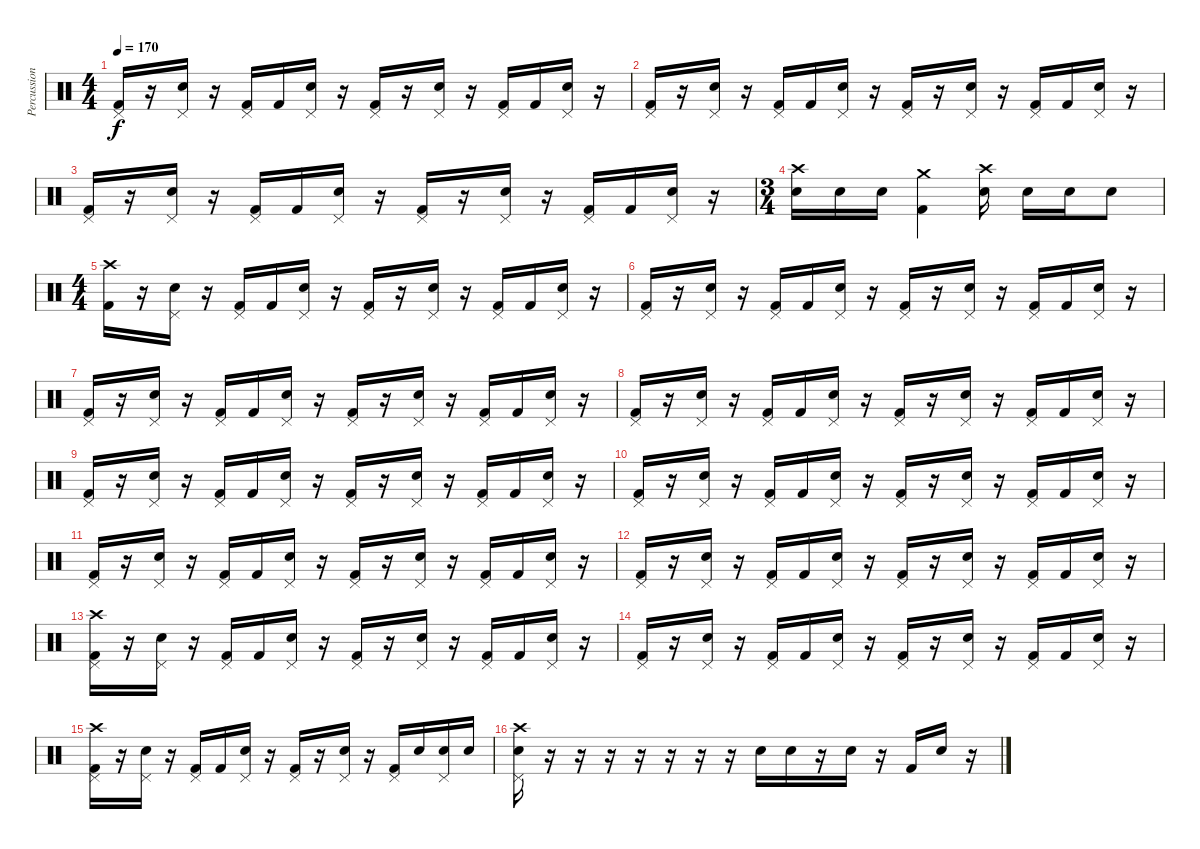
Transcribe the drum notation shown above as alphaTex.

\track ("Percussion" "Percussion") {instrument percussion}
\staff {score}
\articulation defaults
\ts (4 4)
\tempo 170
\clef neutral
\ks c
("Kick (hit) 2" "Pedal Hi-Hat (hit)").16{dy f} r.16 ("Electric Snare (hit)" "Pedal Hi-Hat (hit)").16 r.16 ("Kick (hit) 2" "Pedal Hi-Hat (hit)").16 "Kick (hit) 2".16 ("Electric Snare (hit)" "Pedal Hi-Hat (hit)").16 r.16 ("Kick (hit) 2" "Pedal Hi-Hat (hit)").16 r.16 ("Electric Snare (hit)" "Pedal Hi-Hat (hit)").16 r.16 ("Kick (hit) 2" "Pedal Hi-Hat (hit)").16 "Kick (hit) 2".16 ("Electric Snare (hit)" "Pedal Hi-Hat (hit)").16 r.16 |
("Kick (hit) 2" "Pedal Hi-Hat (hit)").16 r.16 ("Electric Snare (hit)" "Pedal Hi-Hat (hit)").16 r.16 ("Kick (hit) 2" "Pedal Hi-Hat (hit)").16 "Kick (hit) 2".16 ("Electric Snare (hit)" "Pedal Hi-Hat (hit)").16 r.16 ("Kick (hit) 2" "Pedal Hi-Hat (hit)").16 r.16 ("Electric Snare (hit)" "Pedal Hi-Hat (hit)").16 r.16 ("Kick (hit) 2" "Pedal Hi-Hat (hit)").16 "Kick (hit) 2".16 ("Electric Snare (hit)" "Pedal Hi-Hat (hit)").16 r.16 |
("Kick (hit) 2" "Pedal Hi-Hat (hit)").16 r.16 ("Electric Snare (hit)" "Pedal Hi-Hat (hit)").16 r.16 ("Kick (hit) 2" "Pedal Hi-Hat (hit)").16 "Kick (hit) 2".16 ("Electric Snare (hit)" "Pedal Hi-Hat (hit)").16 r.16 ("Kick (hit) 2" "Pedal Hi-Hat (hit)").16 r.16 ("Electric Snare (hit)" "Pedal Hi-Hat (hit)").16 r.16 ("Kick (hit) 2" "Pedal Hi-Hat (hit)").16 "Kick (hit) 2".16 ("Electric Snare (hit)" "Pedal Hi-Hat (hit)").16 r.16 |
\ts (3 4)
("Electric Snare (hit)" "Crash high (hit)").16 "Electric Snare (hit)".16 "Electric Snare (hit)".16 ("Kick (hit) 2" "Crash medium (hit)").4 ("Electric Snare (hit)" "Crash high (hit)").16 "Electric Snare (hit)".16 "Electric Snare (hit)".16 "Electric Snare (hit)".8 |
\ts (4 4)
("Kick (hit) 2" "Crash high (hit)").16 r.16 ("Electric Snare (hit)" "Pedal Hi-Hat (hit)").16 r.16 ("Kick (hit) 2" "Pedal Hi-Hat (hit)").16 "Kick (hit) 2".16 ("Electric Snare (hit)" "Pedal Hi-Hat (hit)").16 r.16 ("Kick (hit) 2" "Pedal Hi-Hat (hit)").16 r.16 ("Electric Snare (hit)" "Pedal Hi-Hat (hit)").16 r.16 ("Kick (hit) 2" "Pedal Hi-Hat (hit)").16 "Kick (hit) 2".16 ("Electric Snare (hit)" "Pedal Hi-Hat (hit)").16 r.16 |
("Kick (hit) 2" "Pedal Hi-Hat (hit)").16 r.16 ("Electric Snare (hit)" "Pedal Hi-Hat (hit)").16 r.16 ("Kick (hit) 2" "Pedal Hi-Hat (hit)").16 "Kick (hit) 2".16 ("Electric Snare (hit)" "Pedal Hi-Hat (hit)").16 r.16 ("Kick (hit) 2" "Pedal Hi-Hat (hit)").16 r.16 ("Electric Snare (hit)" "Pedal Hi-Hat (hit)").16 r.16 ("Kick (hit) 2" "Pedal Hi-Hat (hit)").16 "Kick (hit) 2".16 ("Electric Snare (hit)" "Pedal Hi-Hat (hit)").16 r.16 |
("Kick (hit) 2" "Pedal Hi-Hat (hit)").16 r.16 ("Electric Snare (hit)" "Pedal Hi-Hat (hit)").16 r.16 ("Kick (hit) 2" "Pedal Hi-Hat (hit)").16 "Kick (hit) 2".16 ("Electric Snare (hit)" "Pedal Hi-Hat (hit)").16 r.16 ("Kick (hit) 2" "Pedal Hi-Hat (hit)").16 r.16 ("Electric Snare (hit)" "Pedal Hi-Hat (hit)").16 r.16 ("Kick (hit) 2" "Pedal Hi-Hat (hit)").16 "Kick (hit) 2".16 ("Electric Snare (hit)" "Pedal Hi-Hat (hit)").16 r.16 |
("Kick (hit) 2" "Pedal Hi-Hat (hit)").16 r.16 ("Electric Snare (hit)" "Pedal Hi-Hat (hit)").16 r.16 ("Kick (hit) 2" "Pedal Hi-Hat (hit)").16 "Kick (hit) 2".16 ("Electric Snare (hit)" "Pedal Hi-Hat (hit)").16 r.16 ("Kick (hit) 2" "Pedal Hi-Hat (hit)").16 r.16 ("Electric Snare (hit)" "Pedal Hi-Hat (hit)").16 r.16 ("Kick (hit) 2" "Pedal Hi-Hat (hit)").16 "Kick (hit) 2".16 ("Electric Snare (hit)" "Pedal Hi-Hat (hit)").16 r.16 |
("Kick (hit) 2" "Pedal Hi-Hat (hit)").16 r.16 ("Electric Snare (hit)" "Pedal Hi-Hat (hit)").16 r.16 ("Kick (hit) 2" "Pedal Hi-Hat (hit)").16 "Kick (hit) 2".16 ("Electric Snare (hit)" "Pedal Hi-Hat (hit)").16 r.16 ("Kick (hit) 2" "Pedal Hi-Hat (hit)").16 r.16 ("Electric Snare (hit)" "Pedal Hi-Hat (hit)").16 r.16 ("Kick (hit) 2" "Pedal Hi-Hat (hit)").16 "Kick (hit) 2".16 ("Electric Snare (hit)" "Pedal Hi-Hat (hit)").16 r.16 |
("Kick (hit) 2" "Pedal Hi-Hat (hit)").16 r.16 ("Electric Snare (hit)" "Pedal Hi-Hat (hit)").16 r.16 ("Kick (hit) 2" "Pedal Hi-Hat (hit)").16 "Kick (hit) 2".16 ("Electric Snare (hit)" "Pedal Hi-Hat (hit)").16 r.16 ("Kick (hit) 2" "Pedal Hi-Hat (hit)").16 r.16 ("Electric Snare (hit)" "Pedal Hi-Hat (hit)").16 r.16 ("Kick (hit) 2" "Pedal Hi-Hat (hit)").16 "Kick (hit) 2".16 ("Electric Snare (hit)" "Pedal Hi-Hat (hit)").16 r.16 |
("Kick (hit) 2" "Pedal Hi-Hat (hit)").16 r.16 ("Electric Snare (hit)" "Pedal Hi-Hat (hit)").16 r.16 ("Kick (hit) 2" "Pedal Hi-Hat (hit)").16 "Kick (hit) 2".16 ("Electric Snare (hit)" "Pedal Hi-Hat (hit)").16 r.16 ("Kick (hit) 2" "Pedal Hi-Hat (hit)").16 r.16 ("Electric Snare (hit)" "Pedal Hi-Hat (hit)").16 r.16 ("Kick (hit) 2" "Pedal Hi-Hat (hit)").16 "Kick (hit) 2".16 ("Electric Snare (hit)" "Pedal Hi-Hat (hit)").16 r.16 |
("Kick (hit) 2" "Pedal Hi-Hat (hit)").16 r.16 ("Electric Snare (hit)" "Pedal Hi-Hat (hit)").16 r.16 ("Kick (hit) 2" "Pedal Hi-Hat (hit)").16 "Kick (hit) 2".16 ("Electric Snare (hit)" "Pedal Hi-Hat (hit)").16 r.16 ("Kick (hit) 2" "Pedal Hi-Hat (hit)").16 r.16 ("Electric Snare (hit)" "Pedal Hi-Hat (hit)").16 r.16 ("Kick (hit) 2" "Pedal Hi-Hat (hit)").16 "Kick (hit) 2".16 ("Electric Snare (hit)" "Pedal Hi-Hat (hit)").16 r.16 |
("Kick (hit) 2" "Pedal Hi-Hat (hit)" "Crash high (hit)").16 r.16 ("Electric Snare (hit)" "Pedal Hi-Hat (hit)").16 r.16 ("Kick (hit) 2" "Pedal Hi-Hat (hit)").16 "Kick (hit) 2".16 ("Electric Snare (hit)" "Pedal Hi-Hat (hit)").16 r.16 ("Kick (hit) 2" "Pedal Hi-Hat (hit)").16 r.16 ("Electric Snare (hit)" "Pedal Hi-Hat (hit)").16 r.16 ("Kick (hit) 2" "Pedal Hi-Hat (hit)").16 "Kick (hit) 2".16 ("Electric Snare (hit)" "Pedal Hi-Hat (hit)").16 r.16 |
("Kick (hit) 2" "Pedal Hi-Hat (hit)").16 r.16 ("Electric Snare (hit)" "Pedal Hi-Hat (hit)").16 r.16 ("Kick (hit) 2" "Pedal Hi-Hat (hit)").16 "Kick (hit) 2".16 ("Electric Snare (hit)" "Pedal Hi-Hat (hit)").16 r.16 ("Kick (hit) 2" "Pedal Hi-Hat (hit)").16 r.16 ("Electric Snare (hit)" "Pedal Hi-Hat (hit)").16 r.16 ("Kick (hit) 2" "Pedal Hi-Hat (hit)").16 "Kick (hit) 2".16 ("Electric Snare (hit)" "Pedal Hi-Hat (hit)").16 r.16 |
("Kick (hit) 2" "Pedal Hi-Hat (hit)" "Crash high (hit)").16 r.16 ("Electric Snare (hit)" "Pedal Hi-Hat (hit)").16 r.16 ("Kick (hit) 2" "Pedal Hi-Hat (hit)").16 "Kick (hit) 2".16 ("Electric Snare (hit)" "Pedal Hi-Hat (hit)").16 r.16 ("Kick (hit) 2" "Pedal Hi-Hat (hit)").16 r.16 ("Electric Snare (hit)" "Pedal Hi-Hat (hit)").16 r.16 ("Kick (hit) 2" "Pedal Hi-Hat (hit)").16 "Electric Snare (hit)".16 ("Electric Snare (hit)" "Pedal Hi-Hat (hit)").16 "Electric Snare (hit)".16 |
("Electric Snare (hit)" "Pedal Hi-Hat (hit)" "Crash high (hit)").16 r.16 r.16 r.16 r.16 r.16 r.16 r.16 "Electric Snare (hit)".16 "Electric Snare (hit)".16 r.16 "Electric Snare (hit)".16 r.16 "Kick (hit) 2".16 "Electric Snare (hit)".16 r.16
